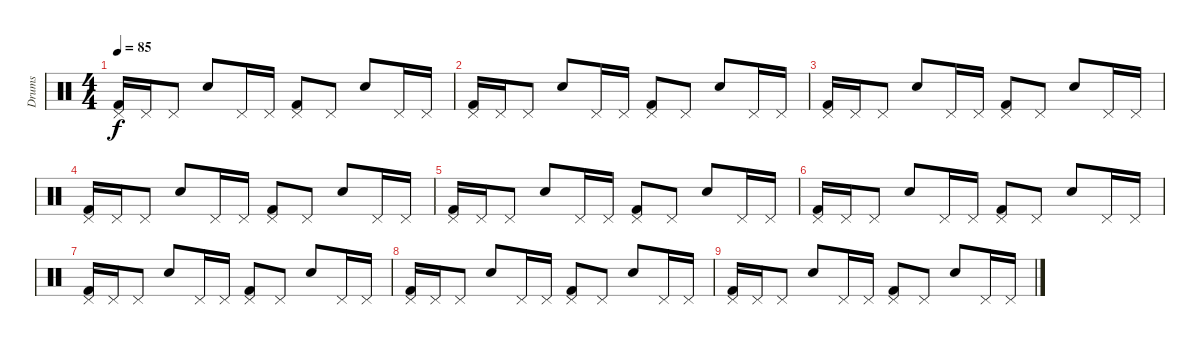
\track ("Drums" "Drums") {instrument percussion}
\staff {score}
\articulation defaults
\ts (4 4)
\tempo 85
\clef neutral
\ks c
("Pedal Hi-Hat (hit)" "Kick (hit) 2").16{dy f} "Pedal Hi-Hat (hit)".16 "Pedal Hi-Hat (hit)".8 "Snare (hit) 2".8 "Pedal Hi-Hat (hit)".16 "Pedal Hi-Hat (hit)".16 ("Pedal Hi-Hat (hit)" "Kick (hit) 2").8 "Pedal Hi-Hat (hit)".8 "Snare (hit) 2".8 "Pedal Hi-Hat (hit)".16 "Pedal Hi-Hat (hit)".16 |
("Pedal Hi-Hat (hit)" "Kick (hit) 2").16 "Pedal Hi-Hat (hit)".16 "Pedal Hi-Hat (hit)".8 "Snare (hit) 2".8 "Pedal Hi-Hat (hit)".16 "Pedal Hi-Hat (hit)".16 ("Pedal Hi-Hat (hit)" "Kick (hit) 2").8 "Pedal Hi-Hat (hit)".8 "Snare (hit) 2".8 "Pedal Hi-Hat (hit)".16 "Pedal Hi-Hat (hit)".16 |
("Pedal Hi-Hat (hit)" "Kick (hit) 2").16 "Pedal Hi-Hat (hit)".16 "Pedal Hi-Hat (hit)".8 "Snare (hit) 2".8 "Pedal Hi-Hat (hit)".16 "Pedal Hi-Hat (hit)".16 ("Pedal Hi-Hat (hit)" "Kick (hit) 2").8 "Pedal Hi-Hat (hit)".8 "Snare (hit) 2".8 "Pedal Hi-Hat (hit)".16 "Pedal Hi-Hat (hit)".16 |
("Pedal Hi-Hat (hit)" "Kick (hit) 2").16 "Pedal Hi-Hat (hit)".16 "Pedal Hi-Hat (hit)".8 "Snare (hit) 2".8 "Pedal Hi-Hat (hit)".16 "Pedal Hi-Hat (hit)".16 ("Pedal Hi-Hat (hit)" "Kick (hit) 2").8 "Pedal Hi-Hat (hit)".8 "Snare (hit) 2".8 "Pedal Hi-Hat (hit)".16 "Pedal Hi-Hat (hit)".16 |
("Pedal Hi-Hat (hit)" "Kick (hit) 2").16 "Pedal Hi-Hat (hit)".16 "Pedal Hi-Hat (hit)".8 "Snare (hit) 2".8 "Pedal Hi-Hat (hit)".16 "Pedal Hi-Hat (hit)".16 ("Pedal Hi-Hat (hit)" "Kick (hit) 2").8 "Pedal Hi-Hat (hit)".8 "Snare (hit) 2".8 "Pedal Hi-Hat (hit)".16 "Pedal Hi-Hat (hit)".16 |
("Pedal Hi-Hat (hit)" "Kick (hit) 2").16 "Pedal Hi-Hat (hit)".16 "Pedal Hi-Hat (hit)".8 "Snare (hit) 2".8 "Pedal Hi-Hat (hit)".16 "Pedal Hi-Hat (hit)".16 ("Pedal Hi-Hat (hit)" "Kick (hit) 2").8 "Pedal Hi-Hat (hit)".8 "Snare (hit) 2".8 "Pedal Hi-Hat (hit)".16 "Pedal Hi-Hat (hit)".16 |
("Pedal Hi-Hat (hit)" "Kick (hit) 2").16 "Pedal Hi-Hat (hit)".16 "Pedal Hi-Hat (hit)".8 "Snare (hit) 2".8 "Pedal Hi-Hat (hit)".16 "Pedal Hi-Hat (hit)".16 ("Pedal Hi-Hat (hit)" "Kick (hit) 2").8 "Pedal Hi-Hat (hit)".8 "Snare (hit) 2".8 "Pedal Hi-Hat (hit)".16 "Pedal Hi-Hat (hit)".16 |
("Pedal Hi-Hat (hit)" "Kick (hit) 2").16 "Pedal Hi-Hat (hit)".16 "Pedal Hi-Hat (hit)".8 "Snare (hit) 2".8 "Pedal Hi-Hat (hit)".16 "Pedal Hi-Hat (hit)".16 ("Pedal Hi-Hat (hit)" "Kick (hit) 2").8 "Pedal Hi-Hat (hit)".8 "Snare (hit) 2".8 "Pedal Hi-Hat (hit)".16 "Pedal Hi-Hat (hit)".16 |
("Pedal Hi-Hat (hit)" "Kick (hit) 2").16 "Pedal Hi-Hat (hit)".16 "Pedal Hi-Hat (hit)".8 "Snare (hit) 2".8 "Pedal Hi-Hat (hit)".16 "Pedal Hi-Hat (hit)".16 ("Pedal Hi-Hat (hit)" "Kick (hit) 2").8 "Pedal Hi-Hat (hit)".8 "Snare (hit) 2".8 "Pedal Hi-Hat (hit)".16 "Pedal Hi-Hat (hit)".16
